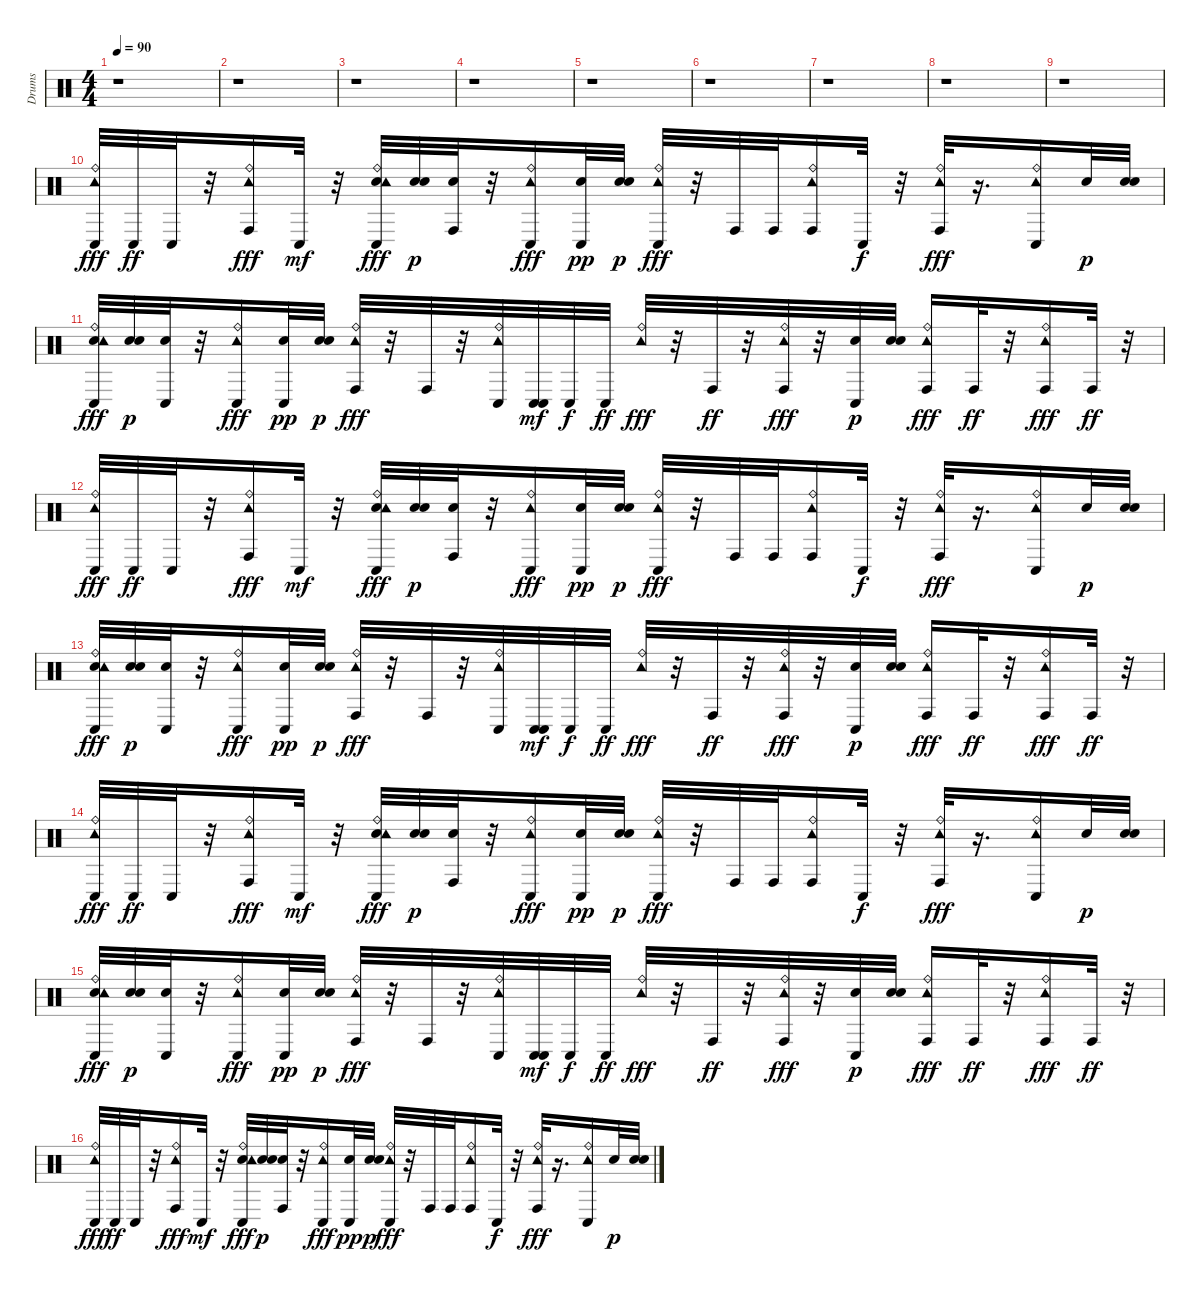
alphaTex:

\track ("Drums" "Drums") {instrument percussion}
\staff {score}
\articulation defaults
\ts (4 4)
\tempo 90
\clef neutral
\ks c
r.1{dy p} |
r.1 |
r.1 |
r.1 |
r.1 |
r.1 |
r.1 |
r.1 |
r.1 |
("Conga low (hit)" "Ride (bell)" "Tambourine (hit)").32{dy fff} "Conga low (hit)".32{dy ff} "Conga low (hit)".32 r.32 ("Conga high (hit)" "Ride (bell)" "Tambourine (hit)").16{dy fff} "Conga low (hit)".32{dy mf} r.32 ("Conga low (hit)" "Ride (bell)" "Electric Snare (hit)" "Tambourine (hit)").32{dy fff} ("Electric Snare (hit)" "Electric Snare (hit)").32{dy p} ("Conga high (hit)" "Electric Snare (hit)").32 r.32 ("Conga low (hit)" "Ride (bell)" "Tambourine (hit)").16{dy fff} ("Conga low (hit)" "Electric Snare (hit)").32{dy pp} ("Electric Snare (hit)" "Electric Snare (hit)").32{dy p} ("Ride (bell)" "Tambourine (hit)" "Conga low (hit)").32{dy fff} r.32 "Conga high (hit)".32 "Conga high (hit)".32 ("Ride (bell)" "Tambourine (hit)" "Conga high (hit)").16 "Conga low (hit)".32{dy f} r.32 ("Conga high (hit)" "Ride (bell)" "Tambourine (hit)").32{dy fff} r.16{d} ("Conga low (hit)" "Ride (bell)" "Tambourine (hit)").16 "Electric Snare (hit)".32{dy p} ("Electric Snare (hit)" "Electric Snare (hit)").32 |
("Conga low (hit)" "Ride (bell)" "Electric Snare (hit)" "Tambourine (hit)").32{dy fff} ("Electric Snare (hit)" "Electric Snare (hit)").32{dy p} ("Conga low (hit)" "Electric Snare (hit)").32 r.32 ("Conga low (hit)" "Ride (bell)" "Tambourine (hit)").16{dy fff} ("Conga low (hit)" "Electric Snare (hit)").32{dy pp} ("Electric Snare (hit)" "Electric Snare (hit)").32{dy p} ("Conga high (hit)" "Ride (bell)" "Tambourine (hit)").32{dy fff} r.32 "Conga high (hit)".32 r.32 ("Conga low (hit)" "Ride (bell)" "Tambourine (hit)").32 ("Conga low (hit)" "Conga low (hit)").32{dy mf} "Conga low (hit)".32{dy f} "Conga low (hit)".32{dy ff} ("Ride (bell)" "Tambourine (hit)").32{dy fff} r.32 "Conga high (hit)".32{dy ff} r.32 ("Ride (bell)" "Conga high (hit)" "Tambourine (hit)").32{dy fff} r.32 ("Conga low (hit)" "Electric Snare (hit)").32{dy p} ("Electric Snare (hit)" "Electric Snare (hit)").32 ("Conga high (hit)" "Ride (bell)" "Tambourine (hit)").16{dy fff} "Conga high (hit)".32{dy ff} r.32 ("Ride (bell)" "Conga high (hit)" "Tambourine (hit)").16{dy fff} "Conga high (hit)".32{dy ff} r.32 |
("Conga low (hit)" "Ride (bell)" "Tambourine (hit)").32{dy fff} "Conga low (hit)".32{dy ff} "Conga low (hit)".32 r.32 ("Conga high (hit)" "Ride (bell)" "Tambourine (hit)").16{dy fff} "Conga low (hit)".32{dy mf} r.32 ("Conga low (hit)" "Ride (bell)" "Electric Snare (hit)" "Tambourine (hit)").32{dy fff} ("Electric Snare (hit)" "Electric Snare (hit)").32{dy p} ("Conga high (hit)" "Electric Snare (hit)").32 r.32 ("Conga low (hit)" "Ride (bell)" "Tambourine (hit)").16{dy fff} ("Conga low (hit)" "Electric Snare (hit)").32{dy pp} ("Electric Snare (hit)" "Electric Snare (hit)").32{dy p} ("Ride (bell)" "Tambourine (hit)" "Conga low (hit)").32{dy fff} r.32 "Conga high (hit)".32 "Conga high (hit)".32 ("Ride (bell)" "Tambourine (hit)" "Conga high (hit)").16 "Conga low (hit)".32{dy f} r.32 ("Conga high (hit)" "Ride (bell)" "Tambourine (hit)").32{dy fff} r.16{d} ("Conga low (hit)" "Ride (bell)" "Tambourine (hit)").16 "Electric Snare (hit)".32{dy p} ("Electric Snare (hit)" "Electric Snare (hit)").32 |
("Conga low (hit)" "Ride (bell)" "Electric Snare (hit)" "Tambourine (hit)").32{dy fff} ("Electric Snare (hit)" "Electric Snare (hit)").32{dy p} ("Conga low (hit)" "Electric Snare (hit)").32 r.32 ("Conga low (hit)" "Ride (bell)" "Tambourine (hit)").16{dy fff} ("Conga low (hit)" "Electric Snare (hit)").32{dy pp} ("Electric Snare (hit)" "Electric Snare (hit)").32{dy p} ("Conga high (hit)" "Ride (bell)" "Tambourine (hit)").32{dy fff} r.32 "Conga high (hit)".32 r.32 ("Conga low (hit)" "Ride (bell)" "Tambourine (hit)").32 ("Conga low (hit)" "Conga low (hit)").32{dy mf} "Conga low (hit)".32{dy f} "Conga low (hit)".32{dy ff} ("Ride (bell)" "Tambourine (hit)").32{dy fff} r.32 "Conga high (hit)".32{dy ff} r.32 ("Ride (bell)" "Conga high (hit)" "Tambourine (hit)").32{dy fff} r.32 ("Conga low (hit)" "Electric Snare (hit)").32{dy p} ("Electric Snare (hit)" "Electric Snare (hit)").32 ("Conga high (hit)" "Ride (bell)" "Tambourine (hit)").16{dy fff} "Conga high (hit)".32{dy ff} r.32 ("Ride (bell)" "Conga high (hit)" "Tambourine (hit)").16{dy fff} "Conga high (hit)".32{dy ff} r.32 |
("Conga low (hit)" "Ride (bell)" "Tambourine (hit)").32{dy fff} "Conga low (hit)".32{dy ff} "Conga low (hit)".32 r.32 ("Conga high (hit)" "Ride (bell)" "Tambourine (hit)").16{dy fff} "Conga low (hit)".32{dy mf} r.32 ("Conga low (hit)" "Ride (bell)" "Electric Snare (hit)" "Tambourine (hit)").32{dy fff} ("Electric Snare (hit)" "Electric Snare (hit)").32{dy p} ("Conga high (hit)" "Electric Snare (hit)").32 r.32 ("Conga low (hit)" "Ride (bell)" "Tambourine (hit)").16{dy fff} ("Conga low (hit)" "Electric Snare (hit)").32{dy pp} ("Electric Snare (hit)" "Electric Snare (hit)").32{dy p} ("Ride (bell)" "Tambourine (hit)" "Conga low (hit)").32{dy fff} r.32 "Conga high (hit)".32 "Conga high (hit)".32 ("Ride (bell)" "Tambourine (hit)" "Conga high (hit)").16 "Conga low (hit)".32{dy f} r.32 ("Conga high (hit)" "Ride (bell)" "Tambourine (hit)").32{dy fff} r.16{d} ("Conga low (hit)" "Ride (bell)" "Tambourine (hit)").16 "Electric Snare (hit)".32{dy p} ("Electric Snare (hit)" "Electric Snare (hit)").32 |
("Conga low (hit)" "Ride (bell)" "Electric Snare (hit)" "Tambourine (hit)").32{dy fff} ("Electric Snare (hit)" "Electric Snare (hit)").32{dy p} ("Conga low (hit)" "Electric Snare (hit)").32 r.32 ("Conga low (hit)" "Ride (bell)" "Tambourine (hit)").16{dy fff} ("Conga low (hit)" "Electric Snare (hit)").32{dy pp} ("Electric Snare (hit)" "Electric Snare (hit)").32{dy p} ("Conga high (hit)" "Ride (bell)" "Tambourine (hit)").32{dy fff} r.32 "Conga high (hit)".32 r.32 ("Conga low (hit)" "Ride (bell)" "Tambourine (hit)").32 ("Conga low (hit)" "Conga low (hit)").32{dy mf} "Conga low (hit)".32{dy f} "Conga low (hit)".32{dy ff} ("Ride (bell)" "Tambourine (hit)").32{dy fff} r.32 "Conga high (hit)".32{dy ff} r.32 ("Ride (bell)" "Conga high (hit)" "Tambourine (hit)").32{dy fff} r.32 ("Conga low (hit)" "Electric Snare (hit)").32{dy p} ("Electric Snare (hit)" "Electric Snare (hit)").32 ("Conga high (hit)" "Ride (bell)" "Tambourine (hit)").16{dy fff} "Conga high (hit)".32{dy ff} r.32 ("Ride (bell)" "Conga high (hit)" "Tambourine (hit)").16{dy fff} "Conga high (hit)".32{dy ff} r.32 |
("Conga low (hit)" "Ride (bell)" "Tambourine (hit)").32{dy fff} "Conga low (hit)".32{dy ff} "Conga low (hit)".32 r.32 ("Conga high (hit)" "Ride (bell)" "Tambourine (hit)").16{dy fff} "Conga low (hit)".32{dy mf} r.32 ("Conga low (hit)" "Ride (bell)" "Electric Snare (hit)" "Tambourine (hit)").32{dy fff} ("Electric Snare (hit)" "Electric Snare (hit)").32{dy p} ("Conga high (hit)" "Electric Snare (hit)").32 r.32 ("Conga low (hit)" "Ride (bell)" "Tambourine (hit)").16{dy fff} ("Conga low (hit)" "Electric Snare (hit)").32{dy pp} ("Electric Snare (hit)" "Electric Snare (hit)").32{dy p} ("Ride (bell)" "Tambourine (hit)" "Conga low (hit)").32{dy fff} r.32 "Conga high (hit)".32 "Conga high (hit)".32 ("Ride (bell)" "Tambourine (hit)" "Conga high (hit)").16 "Conga low (hit)".32{dy f} r.32 ("Conga high (hit)" "Ride (bell)" "Tambourine (hit)").32{dy fff} r.16{d} ("Conga low (hit)" "Ride (bell)" "Tambourine (hit)").16 "Electric Snare (hit)".32{dy p} ("Electric Snare (hit)" "Electric Snare (hit)").32
